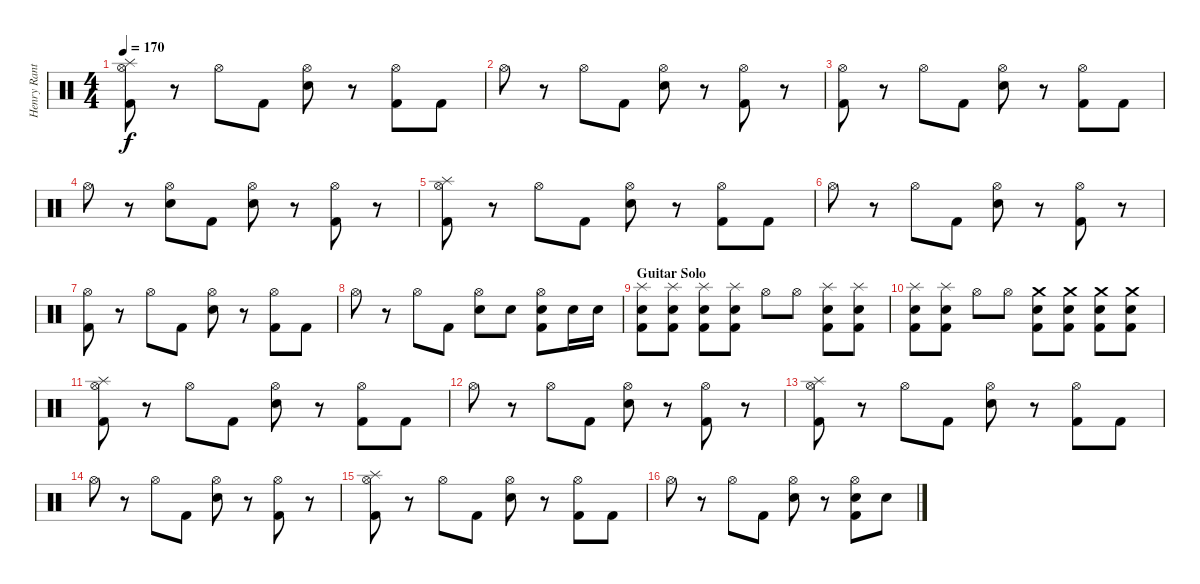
\track ("Henry Ranta -Drums-" "Henry Rant") {instrument percussion}
\staff {score}
\articulation defaults
\ts (4 4)
\tempo 170
\clef neutral
\ks c
("Hi-Hat (open)" "Splash (hit)" "Kick (hit) 2").8{dy f} r.8 "Hi-Hat (open)".8 "Kick (hit) 2".8 ("Hi-Hat (open)" "Snare (hit) 2").8 r.8 ("Hi-Hat (open)" "Kick (hit) 2").8 "Kick (hit) 2".8 |
"Hi-Hat (open)".8 r.8 "Hi-Hat (open)".8 "Kick (hit) 2".8 ("Hi-Hat (open)" "Snare (hit) 2").8 r.8 ("Hi-Hat (open)" "Kick (hit) 2").8 r.8 |
("Hi-Hat (open)" "Kick (hit) 2").8 r.8 "Hi-Hat (open)".8 "Kick (hit) 2".8 ("Hi-Hat (open)" "Snare (hit) 2").8 r.8 ("Hi-Hat (open)" "Kick (hit) 2").8 "Kick (hit) 2".8 |
"Hi-Hat (open)".8 r.8 ("Hi-Hat (open)" "Snare (hit) 2").8 "Kick (hit) 2".8 ("Hi-Hat (open)" "Snare (hit) 2").8 r.8 ("Hi-Hat (open)" "Kick (hit) 2").8 r.8 |
("Hi-Hat (open)" "Splash (hit)" "Kick (hit) 2").8 r.8 "Hi-Hat (open)".8 "Kick (hit) 2".8 ("Hi-Hat (open)" "Snare (hit) 2").8 r.8 ("Hi-Hat (open)" "Kick (hit) 2").8 "Kick (hit) 2".8 |
"Hi-Hat (open)".8 r.8 "Hi-Hat (open)".8 "Kick (hit) 2".8 ("Hi-Hat (open)" "Snare (hit) 2").8 r.8 ("Hi-Hat (open)" "Kick (hit) 2").8 r.8 |
("Hi-Hat (open)" "Kick (hit) 2").8 r.8 "Hi-Hat (open)".8 "Kick (hit) 2".8 ("Hi-Hat (open)" "Snare (hit) 2").8 r.8 ("Hi-Hat (open)" "Kick (hit) 2").8 "Kick (hit) 2".8 |
"Hi-Hat (open)".8 r.8 "Hi-Hat (open)".8 "Kick (hit) 2".8 ("Hi-Hat (open)" "Snare (hit) 2").8 "Snare (hit) 2".8 ("Hi-Hat (open)" "Snare (hit) 2" "Kick (hit) 2").8 "Snare (hit) 2".16 "Snare (hit) 2".16 |
\section ("" "Guitar Solo")
("Splash (hit)" "Snare (hit) 2" "Kick (hit) 2").8 ("Splash (hit)" "Snare (hit) 2" "Kick (hit) 2").8 ("Splash (hit)" "Snare (hit) 2" "Kick (hit) 2").8 ("Splash (hit)" "Snare (hit) 2" "Kick (hit) 2").8 "Hi-Hat (open)".8 "Hi-Hat (open)".8 ("Splash (hit)" "Snare (hit) 2" "Kick (hit) 2").8 ("Splash (hit)" "Snare (hit) 2" "Kick (hit) 2").8 |
("Splash (hit)" "Snare (hit) 2" "Kick (hit) 2").8 ("Splash (hit)" "Snare (hit) 2" "Kick (hit) 2").8 "Hi-Hat (open)".8 "Hi-Hat (open)".8 ("Crash medium (hit)" "Snare (hit) 2" "Kick (hit) 2").8 ("Crash medium (hit)" "Snare (hit) 2" "Kick (hit) 2").8 ("Crash medium (hit)" "Snare (hit) 2" "Kick (hit) 2").8 ("Crash medium (hit)" "Snare (hit) 2" "Kick (hit) 2").8 |
("Hi-Hat (open)" "Splash (hit)" "Kick (hit) 2").8 r.8 "Hi-Hat (open)".8 "Kick (hit) 2".8 ("Hi-Hat (open)" "Snare (hit) 2").8 r.8 ("Hi-Hat (open)" "Kick (hit) 2").8 "Kick (hit) 2".8 |
"Hi-Hat (open)".8 r.8 "Hi-Hat (open)".8 "Kick (hit) 2".8 ("Hi-Hat (open)" "Snare (hit) 2").8 r.8 ("Hi-Hat (open)" "Kick (hit) 2").8 r.8 |
("Hi-Hat (open)" "Splash (hit)" "Kick (hit) 2").8 r.8 "Hi-Hat (open)".8 "Kick (hit) 2".8 ("Hi-Hat (open)" "Snare (hit) 2").8 r.8 ("Hi-Hat (open)" "Kick (hit) 2").8 "Kick (hit) 2".8 |
"Hi-Hat (open)".8 r.8 "Hi-Hat (open)".8 "Kick (hit) 2".8 ("Hi-Hat (open)" "Snare (hit) 2").8 r.8 ("Hi-Hat (open)" "Kick (hit) 2").8 r.8 |
("Hi-Hat (open)" "Splash (hit)" "Kick (hit) 2").8 r.8 "Hi-Hat (open)".8 "Kick (hit) 2".8 ("Hi-Hat (open)" "Snare (hit) 2").8 r.8 ("Hi-Hat (open)" "Kick (hit) 2").8 "Kick (hit) 2".8 |
"Hi-Hat (open)".8 r.8 "Hi-Hat (open)".8 "Kick (hit) 2".8 ("Hi-Hat (open)" "Snare (hit) 2").8 r.8 ("Hi-Hat (open)" "Snare (hit) 2" "Kick (hit) 2").8 "Snare (hit) 2".8
